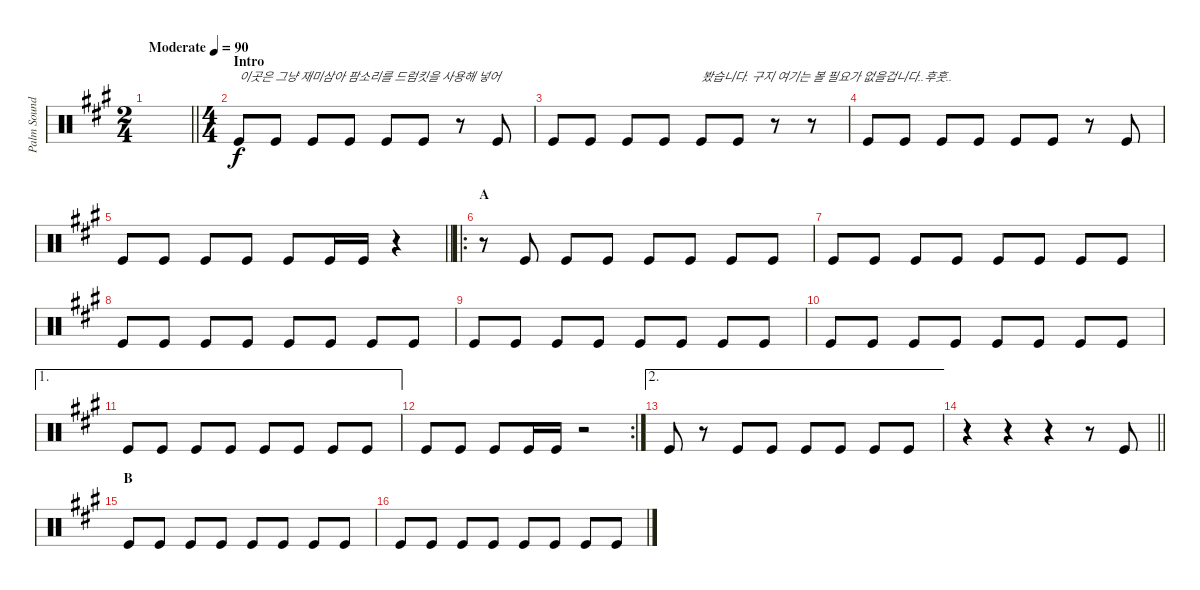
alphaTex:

\track ("Palm Sound" "Palm Sound") {instrument percussion}
\staff {score}
\articulation defaults
\ts (2 4)
\tempo (90 "Moderate")
\clef neutral
\barLineRight lightlight
\ks a
|
\ts (4 4)
\section ("" "Intro")
"Kick (hit)".8{txt "이곳은 그냥 재미삼아 팜소리를 드럼킷을 사용해 넣어"} "Kick (hit)".8 "Kick (hit)".8 "Kick (hit)".8 "Kick (hit)".8 "Kick (hit)".8 r.8 "Kick (hit)".8 |
"Kick (hit)".8 "Kick (hit)".8 "Kick (hit)".8 "Kick (hit)".8 "Kick (hit)".8{txt "봤습니다. 구지 여기는 볼 필요가 없을겁니다..후훗.."} "Kick (hit)".8 r.8 r.8 |
"Kick (hit)".8 "Kick (hit)".8 "Kick (hit)".8 "Kick (hit)".8 "Kick (hit)".8 "Kick (hit)".8 r.8 "Kick (hit)".8 |
\barLineRight lightlight "Kick (hit)".8 "Kick (hit)".8 "Kick (hit)".8 "Kick (hit)".8 "Kick (hit)".8 "Kick (hit)".16 "Kick (hit)".16
r.4 |
\ro
\section ("" "A")
r.8 "Kick (hit)".8 "Kick (hit)".8 "Kick (hit)".8 "Kick (hit)".8 "Kick (hit)".8 "Kick (hit)".8 "Kick (hit)".8 |
"Kick (hit)".8 "Kick (hit)".8 "Kick (hit)".8 "Kick (hit)".8 "Kick (hit)".8 "Kick (hit)".8 "Kick (hit)".8 "Kick (hit)".8 |
"Kick (hit)".8 "Kick (hit)".8 "Kick (hit)".8 "Kick (hit)".8 "Kick (hit)".8 "Kick (hit)".8 "Kick (hit)".8 "Kick (hit)".8 |
"Kick (hit)".8 "Kick (hit)".8 "Kick (hit)".8 "Kick (hit)".8 "Kick (hit)".8 "Kick (hit)".8 "Kick (hit)".8 "Kick (hit)".8 |
"Kick (hit)".8 "Kick (hit)".8 "Kick (hit)".8 "Kick (hit)".8 "Kick (hit)".8 "Kick (hit)".8 "Kick (hit)".8 "Kick (hit)".8 |
\ae 1 "Kick (hit)".8 "Kick (hit)".8 "Kick (hit)".8 "Kick (hit)".8 "Kick (hit)".8 "Kick (hit)".8 "Kick (hit)".8 "Kick (hit)".8
|
\rc 2 "Kick (hit)".8 "Kick (hit)".8 "Kick (hit)".8 "Kick (hit)".16 "Kick (hit)".16
r.2 |
\ae 2 "Kick (hit)".8
r.8 "Kick (hit)".8 "Kick (hit)".8 "Kick (hit)".8 "Kick (hit)".8 "Kick (hit)".8 "Kick (hit)".8 |
\barLineRight lightlight
r.4 r.4 r.4 r.8 "Kick (hit)".8 |
\section ("" "B")
"Kick (hit)".8 "Kick (hit)".8 "Kick (hit)".8 "Kick (hit)".8 "Kick (hit)".8 "Kick (hit)".8 "Kick (hit)".8 "Kick (hit)".8 |
"Kick (hit)".8 "Kick (hit)".8 "Kick (hit)".8 "Kick (hit)".8 "Kick (hit)".8 "Kick (hit)".8 "Kick (hit)".8 "Kick (hit)".8
